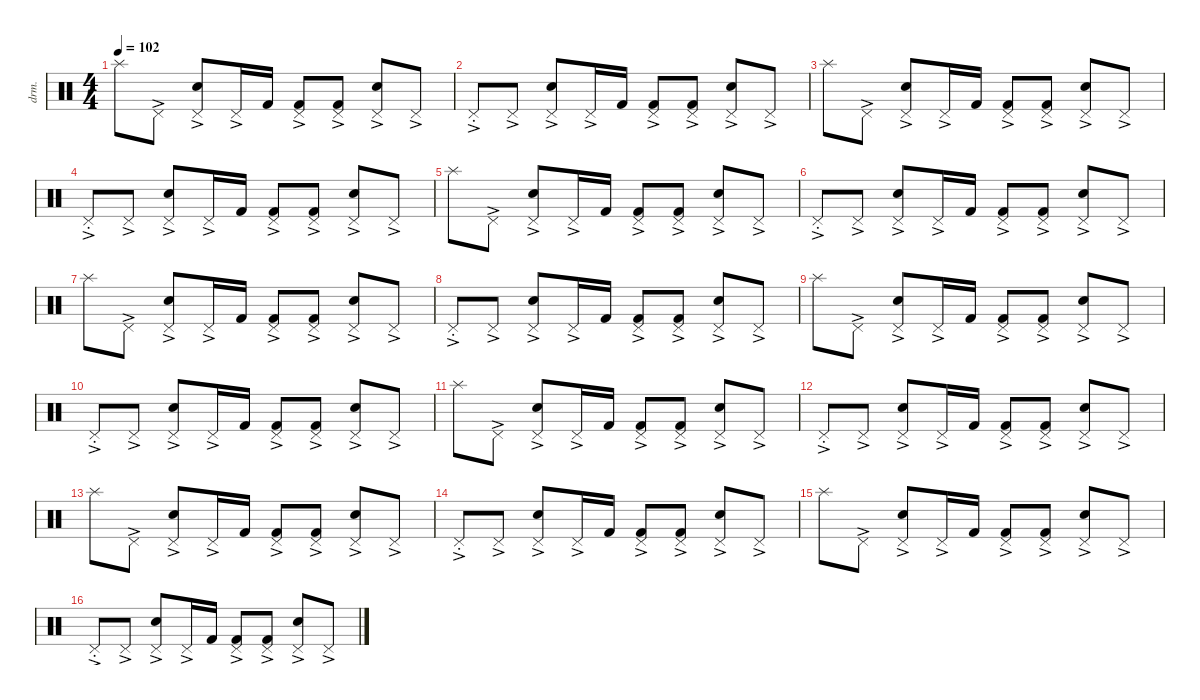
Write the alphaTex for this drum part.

\defaultSystemsLayout 4
\hideDynamics
\bracketExtendMode nobrackets
\multiBarRest
\otherSystemsTrackNameOrientation horizontal
\track ("Drumkit" "drm.") {instrument percussion}
\staff {score}
\articulation defaults
\ts (4 4)
\tempo 102
\clef neutral
\ks c "Splash (hit)".8{dy p beam Down} "Pedal Hi-Hat (hit)"{ac}.8{beam Down}
("Snare (hit) 2" "Pedal Hi-Hat (hit)"{ac}).8{beam Up} "Pedal Hi-Hat (hit)"{ac}.16{beam Up} "Kick (hit) 2".16{beam Up} ("Kick (hit) 2" "Pedal Hi-Hat (hit)"{ac}).8{beam Up} ("Pedal Hi-Hat (hit)"{ac} "Kick (hit) 2").8{beam Up} ("Pedal Hi-Hat (hit)"{ac} "Snare (hit) 2").8{beam Up} "Pedal Hi-Hat (hit)"{ac}.8{beam Up} |
"Pedal Hi-Hat (hit)"{ac st}.8{beam Up} "Pedal Hi-Hat (hit)"{ac}.8{beam Up} ("Snare (hit) 2" "Pedal Hi-Hat (hit)"{ac}).8{beam Up} "Pedal Hi-Hat (hit)"{ac}.16{beam Up} "Kick (hit) 2".16{beam Up} ("Kick (hit) 2" "Pedal Hi-Hat (hit)"{ac}).8{beam Up} ("Pedal Hi-Hat (hit)"{ac} "Kick (hit) 2").8{beam Up} ("Pedal Hi-Hat (hit)"{ac} "Snare (hit) 2").8{beam Up} "Pedal Hi-Hat (hit)"{ac}.8{beam Up} |
"Splash (hit)".8{beam Down} "Pedal Hi-Hat (hit)"{ac}.8{beam Down} ("Snare (hit) 2" "Pedal Hi-Hat (hit)"{ac}).8{beam Up} "Pedal Hi-Hat (hit)"{ac}.16{beam Up} "Kick (hit) 2".16{beam Up} ("Kick (hit) 2" "Pedal Hi-Hat (hit)"{ac}).8{beam Up} ("Pedal Hi-Hat (hit)"{ac} "Kick (hit) 2").8{beam Up} ("Pedal Hi-Hat (hit)"{ac} "Snare (hit) 2").8{beam Up} "Pedal Hi-Hat (hit)"{ac}.8{beam Up} |
"Pedal Hi-Hat (hit)"{ac st}.8{beam Up} "Pedal Hi-Hat (hit)"{ac}.8{beam Up} ("Snare (hit) 2" "Pedal Hi-Hat (hit)"{ac}).8{beam Up} "Pedal Hi-Hat (hit)"{ac}.16{beam Up} "Kick (hit) 2".16{beam Up} ("Kick (hit) 2" "Pedal Hi-Hat (hit)"{ac}).8{beam Up} ("Pedal Hi-Hat (hit)"{ac} "Kick (hit) 2").8{beam Up} ("Pedal Hi-Hat (hit)"{ac} "Snare (hit) 2").8{beam Up} "Pedal Hi-Hat (hit)"{ac}.8{beam Up} |
"Splash (hit)".8{beam Down} "Pedal Hi-Hat (hit)"{ac}.8{beam Down} ("Snare (hit) 2" "Pedal Hi-Hat (hit)"{ac}).8{beam Up} "Pedal Hi-Hat (hit)"{ac}.16{beam Up} "Kick (hit) 2".16{beam Up} ("Kick (hit) 2" "Pedal Hi-Hat (hit)"{ac}).8{beam Up} ("Pedal Hi-Hat (hit)"{ac} "Kick (hit) 2").8{beam Up} ("Pedal Hi-Hat (hit)"{ac} "Snare (hit) 2").8{beam Up} "Pedal Hi-Hat (hit)"{ac}.8{beam Up} |
"Pedal Hi-Hat (hit)"{ac st}.8{beam Up} "Pedal Hi-Hat (hit)"{ac}.8{beam Up} ("Snare (hit) 2" "Pedal Hi-Hat (hit)"{ac}).8{beam Up} "Pedal Hi-Hat (hit)"{ac}.16{beam Up} "Kick (hit) 2".16{beam Up} ("Kick (hit) 2" "Pedal Hi-Hat (hit)"{ac}).8{beam Up} ("Pedal Hi-Hat (hit)"{ac} "Kick (hit) 2").8{beam Up} ("Pedal Hi-Hat (hit)"{ac} "Snare (hit) 2").8{beam Up} "Pedal Hi-Hat (hit)"{ac}.8{beam Up} |
"Splash (hit)".8{beam Down} "Pedal Hi-Hat (hit)"{ac}.8{beam Down} ("Snare (hit) 2" "Pedal Hi-Hat (hit)"{ac}).8{beam Up} "Pedal Hi-Hat (hit)"{ac}.16{beam Up} "Kick (hit) 2".16{beam Up} ("Kick (hit) 2" "Pedal Hi-Hat (hit)"{ac}).8{beam Up} ("Pedal Hi-Hat (hit)"{ac} "Kick (hit) 2").8{beam Up} ("Pedal Hi-Hat (hit)"{ac} "Snare (hit) 2").8{beam Up} "Pedal Hi-Hat (hit)"{ac}.8{beam Up} |
"Pedal Hi-Hat (hit)"{ac st}.8{beam Up} "Pedal Hi-Hat (hit)"{ac}.8{beam Up} ("Snare (hit) 2" "Pedal Hi-Hat (hit)"{ac}).8{beam Up} "Pedal Hi-Hat (hit)"{ac}.16{beam Up} "Kick (hit) 2".16{beam Up} ("Kick (hit) 2" "Pedal Hi-Hat (hit)"{ac}).8{beam Up} ("Pedal Hi-Hat (hit)"{ac} "Kick (hit) 2").8{beam Up} ("Pedal Hi-Hat (hit)"{ac} "Snare (hit) 2").8{beam Up} "Pedal Hi-Hat (hit)"{ac}.8{beam Up} |
"Splash (hit)".8{beam Down} "Pedal Hi-Hat (hit)"{ac}.8{beam Down} ("Snare (hit) 2" "Pedal Hi-Hat (hit)"{ac}).8{beam Up} "Pedal Hi-Hat (hit)"{ac}.16{beam Up} "Kick (hit) 2".16{beam Up} ("Kick (hit) 2" "Pedal Hi-Hat (hit)"{ac}).8{beam Up} ("Pedal Hi-Hat (hit)"{ac} "Kick (hit) 2").8{beam Up} ("Pedal Hi-Hat (hit)"{ac} "Snare (hit) 2").8{beam Up} "Pedal Hi-Hat (hit)"{ac}.8{beam Up} |
"Pedal Hi-Hat (hit)"{ac st}.8{beam Up} "Pedal Hi-Hat (hit)"{ac}.8{beam Up} ("Snare (hit) 2" "Pedal Hi-Hat (hit)"{ac}).8{beam Up} "Pedal Hi-Hat (hit)"{ac}.16{beam Up} "Kick (hit) 2".16{beam Up} ("Kick (hit) 2" "Pedal Hi-Hat (hit)"{ac}).8{beam Up} ("Pedal Hi-Hat (hit)"{ac} "Kick (hit) 2").8{beam Up} ("Pedal Hi-Hat (hit)"{ac} "Snare (hit) 2").8{beam Up} "Pedal Hi-Hat (hit)"{ac}.8{beam Up} |
"Splash (hit)".8{beam Down} "Pedal Hi-Hat (hit)"{ac}.8{beam Down} ("Snare (hit) 2" "Pedal Hi-Hat (hit)"{ac}).8{beam Up} "Pedal Hi-Hat (hit)"{ac}.16{beam Up} "Kick (hit) 2".16{beam Up} ("Kick (hit) 2" "Pedal Hi-Hat (hit)"{ac}).8{beam Up} ("Pedal Hi-Hat (hit)"{ac} "Kick (hit) 2").8{beam Up} ("Pedal Hi-Hat (hit)"{ac} "Snare (hit) 2").8{beam Up} "Pedal Hi-Hat (hit)"{ac}.8{beam Up} |
"Pedal Hi-Hat (hit)"{ac st}.8{beam Up} "Pedal Hi-Hat (hit)"{ac}.8{beam Up} ("Snare (hit) 2" "Pedal Hi-Hat (hit)"{ac}).8{beam Up} "Pedal Hi-Hat (hit)"{ac}.16{beam Up} "Kick (hit) 2".16{beam Up} ("Kick (hit) 2" "Pedal Hi-Hat (hit)"{ac}).8{beam Up} ("Pedal Hi-Hat (hit)"{ac} "Kick (hit) 2").8{beam Up} ("Pedal Hi-Hat (hit)"{ac} "Snare (hit) 2").8{beam Up} "Pedal Hi-Hat (hit)"{ac}.8{beam Up} |
"Splash (hit)".8{beam Down} "Pedal Hi-Hat (hit)"{ac}.8{beam Down} ("Snare (hit) 2" "Pedal Hi-Hat (hit)"{ac}).8{beam Up} "Pedal Hi-Hat (hit)"{ac}.16{beam Up} "Kick (hit) 2".16{beam Up} ("Kick (hit) 2" "Pedal Hi-Hat (hit)"{ac}).8{beam Up} ("Pedal Hi-Hat (hit)"{ac} "Kick (hit) 2").8{beam Up} ("Pedal Hi-Hat (hit)"{ac} "Snare (hit) 2").8{beam Up} "Pedal Hi-Hat (hit)"{ac}.8{beam Up} |
"Pedal Hi-Hat (hit)"{ac st}.8{beam Up} "Pedal Hi-Hat (hit)"{ac}.8{beam Up} ("Snare (hit) 2" "Pedal Hi-Hat (hit)"{ac}).8{beam Up} "Pedal Hi-Hat (hit)"{ac}.16{beam Up} "Kick (hit) 2".16{beam Up} ("Kick (hit) 2" "Pedal Hi-Hat (hit)"{ac}).8{beam Up} ("Pedal Hi-Hat (hit)"{ac} "Kick (hit) 2").8{beam Up} ("Pedal Hi-Hat (hit)"{ac} "Snare (hit) 2").8{beam Up} "Pedal Hi-Hat (hit)"{ac}.8{beam Up} |
"Splash (hit)".8{beam Down} "Pedal Hi-Hat (hit)"{ac}.8{beam Down} ("Snare (hit) 2" "Pedal Hi-Hat (hit)"{ac}).8{beam Up} "Pedal Hi-Hat (hit)"{ac}.16{beam Up} "Kick (hit) 2".16{beam Up} ("Kick (hit) 2" "Pedal Hi-Hat (hit)"{ac}).8{beam Up} ("Pedal Hi-Hat (hit)"{ac} "Kick (hit) 2").8{beam Up} ("Pedal Hi-Hat (hit)"{ac} "Snare (hit) 2").8{beam Up} "Pedal Hi-Hat (hit)"{ac}.8{beam Up} |
"Pedal Hi-Hat (hit)"{ac st}.8{beam Up} "Pedal Hi-Hat (hit)"{ac}.8{beam Up} ("Snare (hit) 2" "Pedal Hi-Hat (hit)"{ac}).8{beam Up} "Pedal Hi-Hat (hit)"{ac}.16{beam Up} "Kick (hit) 2".16{beam Up} ("Kick (hit) 2" "Pedal Hi-Hat (hit)"{ac}).8{beam Up} ("Pedal Hi-Hat (hit)"{ac} "Kick (hit) 2").8{beam Up} ("Pedal Hi-Hat (hit)"{ac} "Snare (hit) 2").8{beam Up} "Pedal Hi-Hat (hit)"{ac}.8{beam Up}
